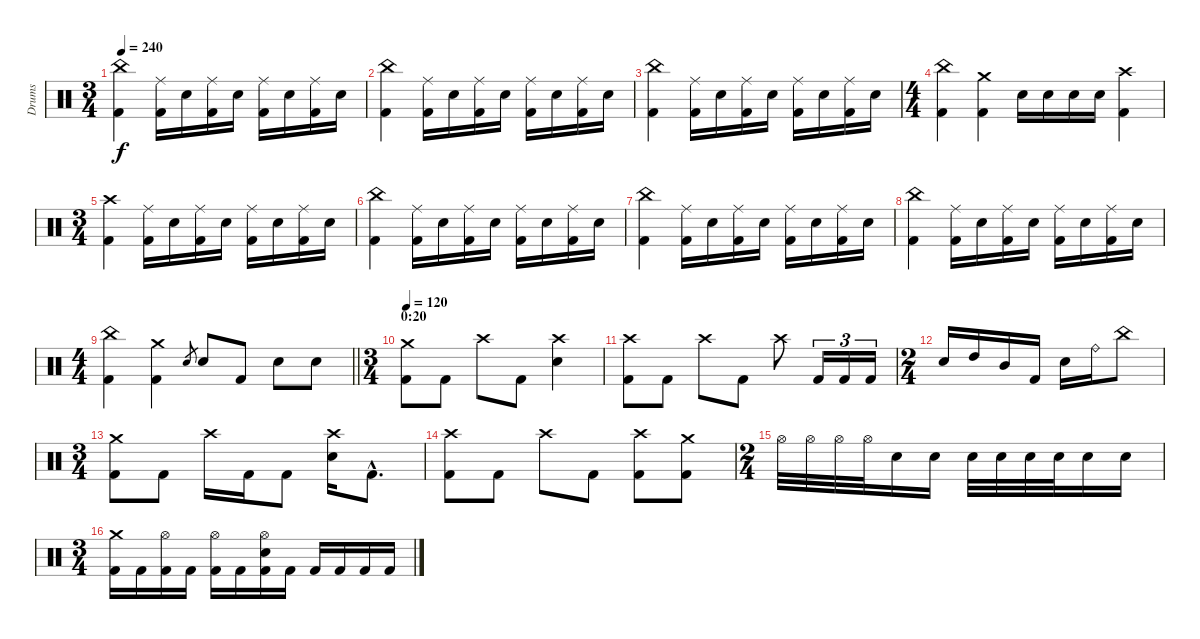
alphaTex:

\track ("Drums" "Drums") {instrument percussion}
\staff {score}
\articulation defaults
\ts (3 4)
\tempo 240
\clef neutral
\ks c
("China (hit)" "Kick (hit) 2").4{dy f} ("Ride (middle)" "Kick (hit) 2").16 "Electric Snare (hit)".16 ("Ride (middle)" "Kick (hit) 2").16 "Electric Snare (hit)".16 ("Ride (middle)" "Kick (hit) 2").16 "Electric Snare (hit)".16 ("Ride (middle)" "Kick (hit) 2").16 "Electric Snare (hit)".16 |
("China (hit)" "Kick (hit) 2").4 ("Ride (middle)" "Kick (hit) 2").16 "Electric Snare (hit)".16 ("Ride (middle)" "Kick (hit) 2").16 "Electric Snare (hit)".16 ("Ride (middle)" "Kick (hit) 2").16 "Electric Snare (hit)".16 ("Ride (middle)" "Kick (hit) 2").16 "Electric Snare (hit)".16 |
("China (hit)" "Kick (hit) 2").4 ("Ride (middle)" "Kick (hit) 2").16 "Electric Snare (hit)".16 ("Ride (middle)" "Kick (hit) 2").16 "Electric Snare (hit)".16 ("Ride (middle)" "Kick (hit) 2").16 "Electric Snare (hit)".16 ("Ride (middle)" "Kick (hit) 2").16 "Electric Snare (hit)".16 |
\ts (4 4)
("China (hit)" "Kick (hit) 2").4 ("Crash medium (hit)" "Kick (hit) 2").4 "Electric Snare (hit)".16 "Electric Snare (hit)".16 "Electric Snare (hit)".16 "Electric Snare (hit)".16 ("Crash high (hit)" "Kick (hit) 2").4 |
\ts (3 4)
("Crash high (hit)" "Kick (hit) 2").4 ("Ride (middle)" "Kick (hit) 2").16 "Electric Snare (hit)".16 ("Ride (middle)" "Kick (hit) 2").16 "Electric Snare (hit)".16 ("Ride (middle)" "Kick (hit) 2").16 "Electric Snare (hit)".16 ("Ride (middle)" "Kick (hit) 2").16 "Electric Snare (hit)".16 |
("China (hit)" "Kick (hit) 2").4 ("Ride (middle)" "Kick (hit) 2").16 "Electric Snare (hit)".16 ("Ride (middle)" "Kick (hit) 2").16 "Electric Snare (hit)".16 ("Ride (middle)" "Kick (hit) 2").16 "Electric Snare (hit)".16 ("Ride (middle)" "Kick (hit) 2").16 "Electric Snare (hit)".16 |
("China (hit)" "Kick (hit) 2").4 ("Ride (middle)" "Kick (hit) 2").16 "Electric Snare (hit)".16 ("Ride (middle)" "Kick (hit) 2").16 "Electric Snare (hit)".16 ("Ride (middle)" "Kick (hit) 2").16 "Electric Snare (hit)".16 ("Ride (middle)" "Kick (hit) 2").16 "Electric Snare (hit)".16 |
("China (hit)" "Kick (hit) 2").4 ("Ride (middle)" "Kick (hit) 2").16 "Electric Snare (hit)".16 ("Ride (middle)" "Kick (hit) 2").16 "Electric Snare (hit)".16 ("Ride (middle)" "Kick (hit) 2").16 "Electric Snare (hit)".16 ("Ride (middle)" "Kick (hit) 2").16 "Electric Snare (hit)".16 |
\ts (4 4)
\barLineRight lightlight
("China (hit)" "Kick (hit) 2").4 ("Crash medium (hit)" "Kick (hit) 2").4 "Electric Snare (hit)".8{gr} "Electric Snare (hit)".8 "Kick (hit) 2".8 "Electric Snare (hit)".8 "Electric Snare (hit)".8 |
\ts (3 4)
\section ("" "0:20")
\tempo 120
("Crash medium (hit)" "Kick (hit) 2").8 "Kick (hit) 2".8 "Crash high (hit)".8 "Kick (hit) 2".8 ("Crash high (hit)" "Electric Snare (hit)").4 |
("Crash high (hit)" "Kick (hit) 2").8 "Kick (hit) 2".8 "Crash high (hit)".8 "Kick (hit) 2".8 "Crash high (hit)".8 "Kick (hit) 2".16{tu (3 2)} "Kick (hit) 2".16{tu (3 2)} "Kick (hit) 2".16{tu (3 2)} |
\ts (2 4)
"Electric Snare (hit)".16 "High Tom (hit)".16 "Mid Tom (hit)".16 "Kick (hit) 2".16 "Electric Snare (hit)".16 "Ride (bell)".16 "China (hit)".8 |
\ts (3 4)
("Crash medium (hit)" "Kick (hit) 2").8 "Kick (hit) 2".8 "Crash high (hit)".16 "Kick (hit) 2".16 "Kick (hit) 2".8 ("Crash high (hit)" "Electric Snare (hit)").16 "Kick (hit) 2"{hac}.8{d} |
("Crash high (hit)" "Kick (hit) 2").8 "Kick (hit) 2".8 "Crash high (hit)".8 "Kick (hit) 2".8 ("Kick (hit) 2" "Crash high (hit)").8 ("Kick (hit) 2" "Crash medium (hit)").8 |
\ts (2 4)
"Hi-Hat (open)".32 "Hi-Hat (open)".32 "Hi-Hat (open)".32 "Hi-Hat (open)".32 "Electric Snare (hit)".16 "Electric Snare (hit)".16 "Electric Snare (hit)".32 "Electric Snare (hit)".32 "Electric Snare (hit)".32 "Electric Snare (hit)".32 "Electric Snare (hit)".16 "Electric Snare (hit)".16 |
\ts (3 4)
("Kick (hit) 2" "Crash medium (hit)").16 "Kick (hit) 2".16 ("Kick (hit) 2" "Hi-Hat (open)").16 "Kick (hit) 2".16 ("Kick (hit) 2" "Hi-Hat (open)").16 "Kick (hit) 2".16 ("Kick (hit) 2" "Hi-Hat (open)" "Electric Snare (hit)").16 "Kick (hit) 2".16 "Kick (hit) 2".16 "Kick (hit) 2".16 "Kick (hit) 2".16 "Kick (hit) 2".16
